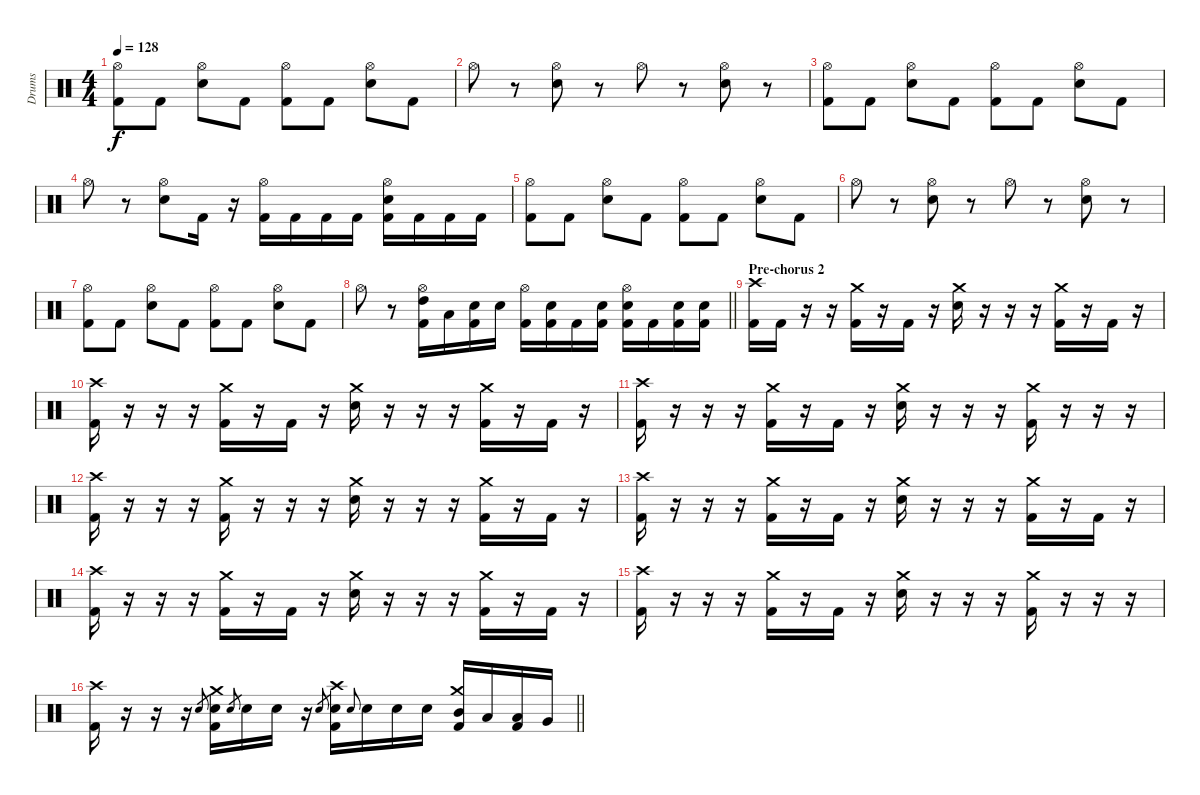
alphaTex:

\track ("Drums" "Drums") {instrument percussion}
\staff {score}
\articulation defaults
\ts (4 4)
\tempo 128
\clef neutral
\ks c
("Hi-Hat (open)" "Kick (hit) 2").8{dy f} "Kick (hit) 2".8 ("Hi-Hat (open)" "Electric Snare (hit)").8 "Kick (hit) 2".8 ("Hi-Hat (open)" "Kick (hit) 2").8 "Kick (hit) 2".8 ("Hi-Hat (open)" "Electric Snare (hit)").8 "Kick (hit) 2".8 |
"Hi-Hat (open)".8 r.8 ("Hi-Hat (open)" "Electric Snare (hit)").8 r.8 "Hi-Hat (open)".8 r.8 ("Hi-Hat (open)" "Electric Snare (hit)").8 r.8 |
("Hi-Hat (open)" "Kick (hit) 2").8 "Kick (hit) 2".8 ("Hi-Hat (open)" "Electric Snare (hit)").8 "Kick (hit) 2".8 ("Hi-Hat (open)" "Kick (hit) 2").8 "Kick (hit) 2".8 ("Hi-Hat (open)" "Electric Snare (hit)").8 "Kick (hit) 2".8 |
"Hi-Hat (open)".8 r.8 ("Hi-Hat (open)" "Electric Snare (hit)").8 "Kick (hit) 2".16 r.16 ("Hi-Hat (open)" "Kick (hit) 2").16 "Kick (hit) 2".16 "Kick (hit) 2".16 "Kick (hit) 2".16 ("Hi-Hat (open)" "Electric Snare (hit)" "Kick (hit) 2").16 "Kick (hit) 2".16 "Kick (hit) 2".16 "Kick (hit) 2".16 |
("Hi-Hat (open)" "Kick (hit) 2").8 "Kick (hit) 2".8 ("Hi-Hat (open)" "Electric Snare (hit)").8 "Kick (hit) 2".8 ("Hi-Hat (open)" "Kick (hit) 2").8 "Kick (hit) 2".8 ("Hi-Hat (open)" "Electric Snare (hit)").8 "Kick (hit) 2".8 |
"Hi-Hat (open)".8 r.8 ("Hi-Hat (open)" "Electric Snare (hit)").8 r.8 "Hi-Hat (open)".8 r.8 ("Hi-Hat (open)" "Electric Snare (hit)").8 r.8 |
("Hi-Hat (open)" "Kick (hit) 2").8 "Kick (hit) 2".8 ("Hi-Hat (open)" "Electric Snare (hit)").8 "Kick (hit) 2".8 ("Hi-Hat (open)" "Kick (hit) 2").8 "Kick (hit) 2".8 ("Hi-Hat (open)" "Electric Snare (hit)").8 "Kick (hit) 2".8 |
\barLineRight lightlight "Hi-Hat (open)".8
r.8 ("Hi-Hat (open)" "High Tom (hit)" "Kick (hit) 2").16 "Low Tom (hit)".16 ("Electric Snare (hit)" "Kick (hit) 2").16 "Electric Snare (hit)".16 ("Hi-Hat (open)" "Kick (hit) 2").16 ("Electric Snare (hit)" "Kick (hit) 2").16 "Kick (hit) 2".16 ("Electric Snare (hit)" "Kick (hit) 2").16 ("Hi-Hat (open)" "Electric Snare (hit)" "Kick (hit) 2").16 "Kick (hit) 2".16 ("Electric Snare (hit)" "Kick (hit) 2").16 ("Electric Snare (hit)" "Kick (hit) 2").16 |
\section ("" "Pre-chorus 2")
("Crash high (hit)" "Kick (hit) 2").16 "Kick (hit) 2".16 r.16 r.16 ("Crash medium (hit)" "Kick (hit) 2").16 r.16 "Kick (hit) 2".16 r.16 ("Crash medium (hit)" "Electric Snare (hit)").16 r.16 r.16 r.16 ("Crash medium (hit)" "Kick (hit) 2").16 r.16 "Kick (hit) 2".16 r.16 |
("Crash high (hit)" "Kick (hit) 2").16 r.16 r.16 r.16 ("Crash medium (hit)" "Kick (hit) 2").16 r.16 "Kick (hit) 2".16 r.16 ("Crash medium (hit)" "Electric Snare (hit)").16 r.16 r.16 r.16 ("Crash medium (hit)" "Kick (hit) 2").16 r.16 "Kick (hit) 2".16 r.16 |
("Crash high (hit)" "Kick (hit) 2").16 r.16 r.16 r.16 ("Crash medium (hit)" "Kick (hit) 2").16 r.16 "Kick (hit) 2".16 r.16 ("Crash medium (hit)" "Electric Snare (hit)").16 r.16 r.16 r.16 ("Crash medium (hit)" "Kick (hit) 2").16 r.16 r.16 r.16 |
("Crash high (hit)" "Kick (hit) 2").16 r.16 r.16 r.16 ("Crash medium (hit)" "Kick (hit) 2").16 r.16 r.16 r.16 ("Crash medium (hit)" "Electric Snare (hit)").16 r.16 r.16 r.16 ("Crash medium (hit)" "Kick (hit) 2").16 r.16 "Kick (hit) 2".16 r.16 |
("Crash high (hit)" "Kick (hit) 2").16 r.16 r.16 r.16 ("Crash medium (hit)" "Kick (hit) 2").16 r.16 "Kick (hit) 2".16 r.16 ("Crash medium (hit)" "Electric Snare (hit)").16 r.16 r.16 r.16 ("Crash medium (hit)" "Kick (hit) 2").16 r.16 "Kick (hit) 2".16 r.16 |
("Crash high (hit)" "Kick (hit) 2").16 r.16 r.16 r.16 ("Crash medium (hit)" "Kick (hit) 2").16 r.16 "Kick (hit) 2".16 r.16 ("Crash medium (hit)" "Electric Snare (hit)").16 r.16 r.16 r.16 ("Crash medium (hit)" "Kick (hit) 2").16 r.16 "Kick (hit) 2".16 r.16 |
("Crash high (hit)" "Kick (hit) 2").16 r.16 r.16 r.16 ("Crash medium (hit)" "Kick (hit) 2").16 r.16 "Kick (hit) 2".16 r.16 ("Crash medium (hit)" "Electric Snare (hit)").16 r.16 r.16 r.16 ("Crash medium (hit)" "Kick (hit) 2").16 r.16 r.16 r.16 |
\barLineRight lightlight
("Crash high (hit)" "Kick (hit) 2").16 r.16 r.16 r.16 "Electric Snare (hit)".8{gr} ("Crash medium (hit)" "Electric Snare (hit)" "Kick (hit) 2").16 "Electric Snare (hit)".8{gr} "Electric Snare (hit)".16 "Electric Snare (hit)".16 r.16 "Electric Snare (hit)".8{gr} ("Crash high (hit)" "Electric Snare (hit)" "Kick (hit) 2").16 "Electric Snare (hit)".8{gr onbeat} "Electric Snare (hit)".16 "Electric Snare (hit)".16 "Electric Snare (hit)".16 ("Crash medium (hit)" "Mid Tom (hit)" "Kick (hit) 2").16 "Low Tom (hit)".16 ("Low Tom (hit)" "Kick (hit) 2").16 "Very Low Tom (hit)".16
